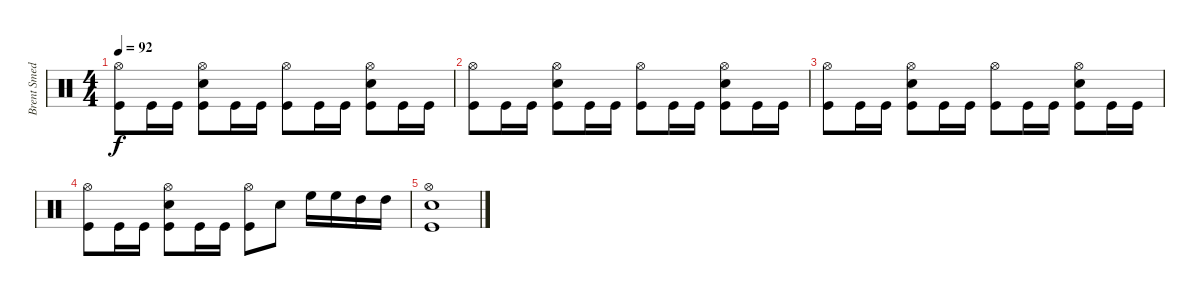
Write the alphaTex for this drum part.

\track ("Brent Smedley" "Brent Smed") {instrument percussion}
\staff {score}
\articulation defaults
\ts (4 4)
\tempo 92
\clef neutral
\ks c
("Hi-Hat (open)" "Kick (hit)").8{dy f} "Kick (hit)".16 "Kick (hit)".16 ("Hi-Hat (open)" "Electric Snare (hit)" "Kick (hit)").8 "Kick (hit)".16 "Kick (hit)".16 ("Hi-Hat (open)" "Kick (hit)").8 "Kick (hit)".16 "Kick (hit)".16 ("Hi-Hat (open)" "Electric Snare (hit)" "Kick (hit)").8 "Kick (hit)".16 "Kick (hit)".16 |
("Hi-Hat (open)" "Kick (hit)").8 "Kick (hit)".16 "Kick (hit)".16 ("Hi-Hat (open)" "Electric Snare (hit)" "Kick (hit)").8 "Kick (hit)".16 "Kick (hit)".16 ("Hi-Hat (open)" "Kick (hit)").8 "Kick (hit)".16 "Kick (hit)".16 ("Hi-Hat (open)" "Electric Snare (hit)" "Kick (hit)").8 "Kick (hit)".16 "Kick (hit)".16 |
("Hi-Hat (open)" "Kick (hit)").8 "Kick (hit)".16 "Kick (hit)".16 ("Hi-Hat (open)" "Electric Snare (hit)" "Kick (hit)").8 "Kick (hit)".16 "Kick (hit)".16 ("Hi-Hat (open)" "Kick (hit)").8 "Kick (hit)".16 "Kick (hit)".16 ("Hi-Hat (open)" "Electric Snare (hit)" "Kick (hit)").8 "Kick (hit)".16 "Kick (hit)".16 |
("Hi-Hat (open)" "Kick (hit)").8 "Kick (hit)".16 "Kick (hit)".16 ("Hi-Hat (open)" "Electric Snare (hit)" "Kick (hit)").8 "Kick (hit)".16 "Kick (hit)".16 ("Hi-Hat (open)" "Kick (hit)").8 "Electric Snare (hit)".8 "High Floor Tom (hit)".16 "High Floor Tom (hit)".16 "High Tom (hit)".16 "High Tom (hit)".16 |
("Hi-Hat (open)" "Electric Snare (hit)" "Kick (hit)").1
